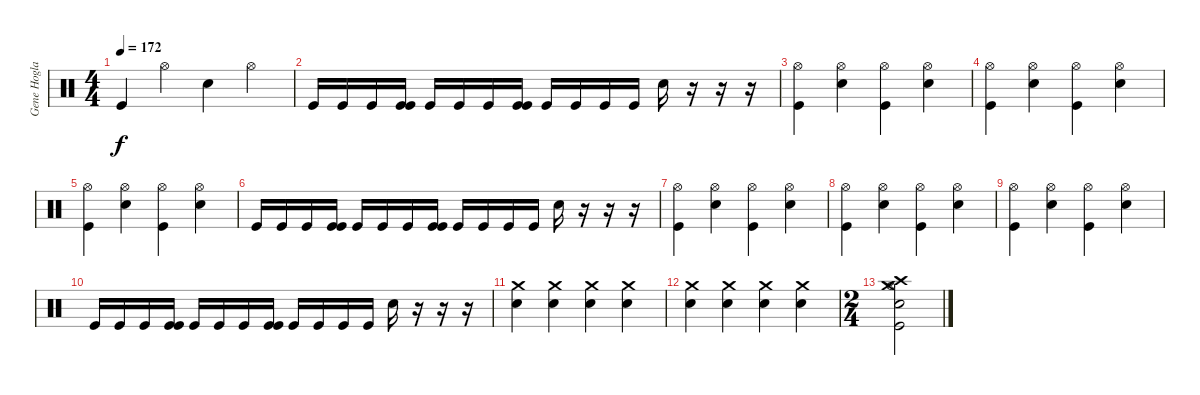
\track ("Gene Hoglan" "Gene Hogla") {instrument percussion}
\staff {score}
\articulation defaults
\ts (4 4)
\tempo 172
\clef neutral
\ks c "Kick (hit)".4{dy f} "Hi-Hat (open)".4 "Snare (hit) 2".4 "Hi-Hat (open)".4
|
"Kick (hit)".16 "Kick (hit)".16 "Kick (hit)".16 ("Kick (hit)" "Kick (hit)").16 "Kick (hit)".16 "Kick (hit)".16 "Kick (hit)".16 ("Kick (hit)" "Kick (hit)").16 "Kick (hit)".16 "Kick (hit)".16 "Kick (hit)".16 "Kick (hit)".16 "Snare (hit) 2".16 r.16 r.16 r.16 |
("Hi-Hat (open)" "Kick (hit)").4 ("Hi-Hat (open)" "Snare (hit) 2").4 ("Hi-Hat (open)" "Kick (hit)").4 ("Hi-Hat (open)" "Snare (hit) 2").4 |
("Hi-Hat (open)" "Kick (hit)").4 ("Hi-Hat (open)" "Snare (hit) 2").4 ("Hi-Hat (open)" "Kick (hit)").4 ("Hi-Hat (open)" "Snare (hit) 2").4 |
("Hi-Hat (open)" "Kick (hit)").4 ("Hi-Hat (open)" "Snare (hit) 2").4 ("Hi-Hat (open)" "Kick (hit)").4 ("Hi-Hat (open)" "Snare (hit) 2").4 |
"Kick (hit)".16 "Kick (hit)".16 "Kick (hit)".16 ("Kick (hit)" "Kick (hit)").16 "Kick (hit)".16 "Kick (hit)".16 "Kick (hit)".16 ("Kick (hit)" "Kick (hit)").16 "Kick (hit)".16 "Kick (hit)".16 "Kick (hit)".16 "Kick (hit)".16 "Snare (hit) 2".16 r.16 r.16 r.16 |
("Hi-Hat (open)" "Kick (hit)").4 ("Hi-Hat (open)" "Snare (hit) 2").4 ("Hi-Hat (open)" "Kick (hit)").4 ("Hi-Hat (open)" "Snare (hit) 2").4 |
("Hi-Hat (open)" "Kick (hit)").4 ("Hi-Hat (open)" "Snare (hit) 2").4 ("Hi-Hat (open)" "Kick (hit)").4 ("Hi-Hat (open)" "Snare (hit) 2").4 |
("Hi-Hat (open)" "Kick (hit)").4 ("Hi-Hat (open)" "Snare (hit) 2").4 ("Hi-Hat (open)" "Kick (hit)").4 ("Hi-Hat (open)" "Snare (hit) 2").4 |
"Kick (hit)".16 "Kick (hit)".16 "Kick (hit)".16 ("Kick (hit)" "Kick (hit)").16 "Kick (hit)".16 "Kick (hit)".16 "Kick (hit)".16 ("Kick (hit)" "Kick (hit)").16 "Kick (hit)".16 "Kick (hit)".16 "Kick (hit)".16 "Kick (hit)".16 "Snare (hit) 2".16 r.16 r.16 r.16 |
("Crash medium (hit)" "Snare (hit) 2").4 ("Crash medium (hit)" "Snare (hit) 2").4 ("Crash medium (hit)" "Snare (hit) 2").4 ("Crash medium (hit)" "Snare (hit) 2").4 |
("Crash medium (hit)" "Snare (hit) 2").4 ("Crash medium (hit)" "Snare (hit) 2").4 ("Crash medium (hit)" "Snare (hit) 2").4 ("Crash medium (hit)" "Snare (hit) 2").4 |
\ts (2 4)
("Crash medium (hit)" "Crash high (hit)" "Snare (hit) 2" "Hi-Hat (open)" "Kick (hit)").2
